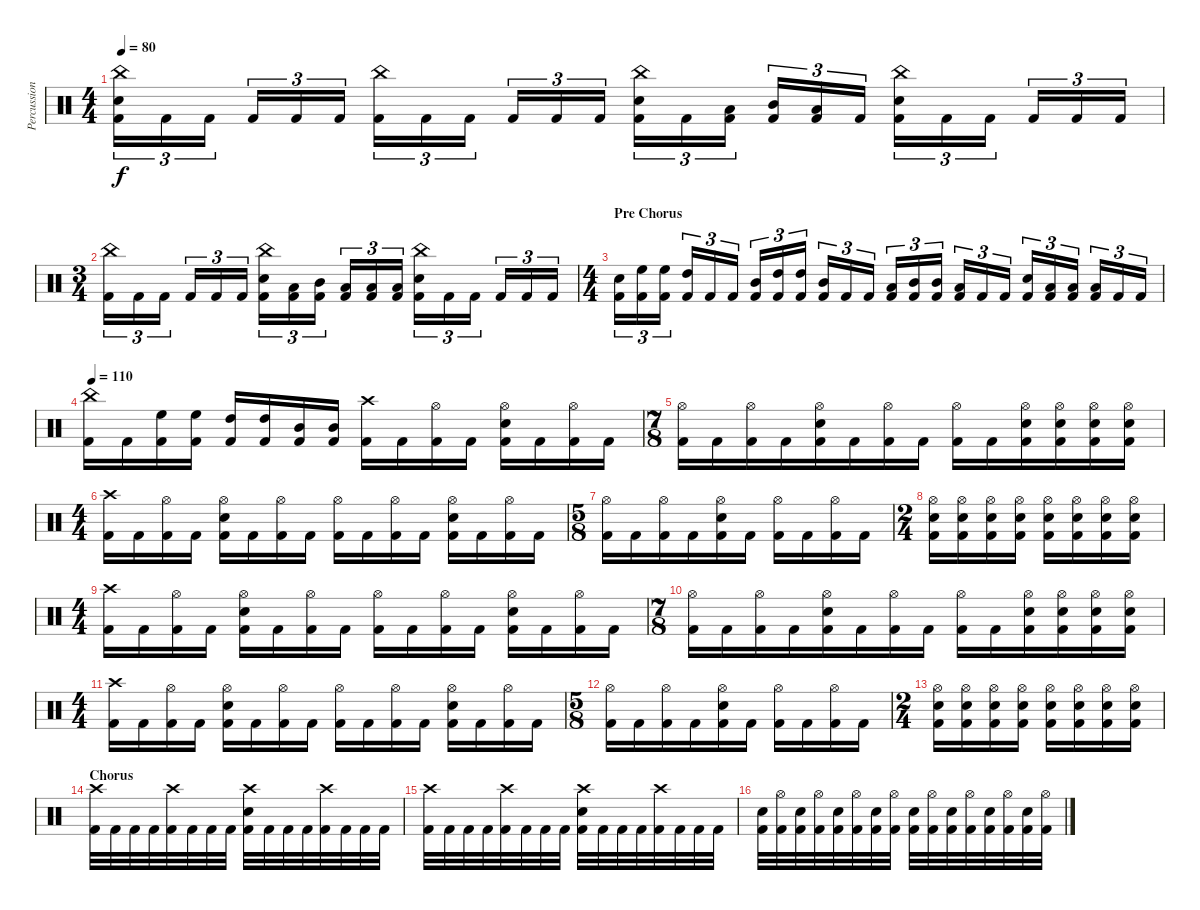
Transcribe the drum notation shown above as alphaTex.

\track ("Percussion" "Percussion") {instrument percussion}
\staff {score}
\articulation defaults
\ts (4 4)
\tempo 80
\clef neutral
\ks c
("China (hit)" "Electric Snare (hit)" "Kick (hit) 2").16{tu (3 2) dy f} "Kick (hit) 2".16{tu (3 2)} "Kick (hit) 2".16{tu (3 2)} "Kick (hit) 2".16{tu (3 2)} "Kick (hit) 2".16{tu (3 2)} "Kick (hit) 2".16{tu (3 2)} ("China (hit)" "Kick (hit) 2").16{tu (3 2)} "Kick (hit) 2".16{tu (3 2)} "Kick (hit) 2".16{tu (3 2)} "Kick (hit) 2".16{tu (3 2)} "Kick (hit) 2".16{tu (3 2)} "Kick (hit) 2".16{tu (3 2)} ("China (hit)" "Electric Snare (hit)" "Kick (hit) 2").16{tu (3 2)} "Kick (hit) 2".16{tu (3 2)} ("Low Tom (hit)" "Kick (hit) 2").16{tu (3 2)} ("Mid Tom (hit)" "Kick (hit) 2").16{tu (3 2)} ("Low Tom (hit)" "Kick (hit) 2").16{tu (3 2)} "Kick (hit) 2".16{tu (3 2)} ("China (hit)" "Electric Snare (hit)" "Kick (hit) 2").16{tu (3 2)} "Kick (hit) 2".16{tu (3 2)} "Kick (hit) 2".16{tu (3 2)} "Kick (hit) 2".16{tu (3 2)} "Kick (hit) 2".16{tu (3 2)} "Kick (hit) 2".16{tu (3 2)} |
\ts (3 4)
("China (hit)" "Kick (hit) 2").16{tu (3 2)} "Kick (hit) 2".16{tu (3 2)} "Kick (hit) 2".16{tu (3 2)} "Kick (hit) 2".16{tu (3 2)} "Kick (hit) 2".16{tu (3 2)} "Kick (hit) 2".16{tu (3 2)} ("China (hit)" "Electric Snare (hit)" "Kick (hit) 2").16{tu (3 2)} ("Low Tom (hit)" "Kick (hit) 2").16{tu (3 2)} ("Mid Tom (hit)" "Kick (hit) 2").16{tu (3 2)} ("Low Floor Tom (hit)" "Kick (hit) 2").16{tu (3 2)} ("Low Tom (hit)" "Kick (hit) 2").16{tu (3 2)} ("Low Floor Tom (hit)" "Kick (hit) 2").16{tu (3 2)} ("China (hit)" "Electric Snare (hit)" "Kick (hit) 2").16{tu (3 2)} "Kick (hit) 2".16{tu (3 2)} "Kick (hit) 2".16{tu (3 2)} "Kick (hit) 2".16{tu (3 2)} "Kick (hit) 2".16{tu (3 2)} "Kick (hit) 2".16{tu (3 2)} |
\ts (4 4)
\section ("" "Pre Chorus")
("Electric Snare (hit)" "Kick (hit) 2").16{tu (3 2)} ("High Floor Tom (hit)" "Kick (hit) 2").16{tu (3 2)} ("High Floor Tom (hit)" "Kick (hit) 2").16{tu (3 2)} ("High Tom (hit)" "Kick (hit) 2").16{tu (3 2)} "Kick (hit) 2".16{tu (3 2)} "Kick (hit) 2".16{tu (3 2)} ("Mid Tom (hit)" "Kick (hit) 2").16{tu (3 2)} ("High Tom (hit)" "Kick (hit) 2").16{tu (3 2)} ("High Tom (hit)" "Kick (hit) 2").16{tu (3 2)} ("Mid Tom (hit)" "Kick (hit) 2").16{tu (3 2)} "Kick (hit) 2".16{tu (3 2)} "Kick (hit) 2".16{tu (3 2)} ("Low Tom (hit)" "Kick (hit) 2").16{tu (3 2)} ("Mid Tom (hit)" "Kick (hit) 2").16{tu (3 2)} ("Mid Tom (hit)" "Kick (hit) 2").16{tu (3 2)} ("Low Tom (hit)" "Kick (hit) 2").16{tu (3 2)} "Kick (hit) 2".16{tu (3 2)} "Kick (hit) 2".16{tu (3 2)} ("Electric Snare (hit)" "Kick (hit) 2").16{tu (3 2)} ("Low Tom (hit)" "Kick (hit) 2").16{tu (3 2)} ("Low Tom (hit)" "Kick (hit) 2").16{tu (3 2)} ("Low Floor Tom (hit)" "Kick (hit) 2").16{tu (3 2)} "Kick (hit) 2".16{tu (3 2)} "Kick (hit) 2".16{tu (3 2)} |
\tempo 110
("China (hit)" "Kick (hit) 2").16 "Kick (hit) 2".16 ("High Floor Tom (hit)" "Kick (hit) 2").16 ("High Floor Tom (hit)" "Kick (hit) 2").16 ("High Tom (hit)" "Kick (hit) 2").16 ("High Tom (hit)" "Kick (hit) 2").16 ("Mid Tom (hit)" "Kick (hit) 2").16 ("Mid Tom (hit)" "Kick (hit) 2").16 ("Crash high (hit)" "Kick (hit) 2").16 "Kick (hit) 2".16 ("Hi-Hat (open)" "Kick (hit) 2").16 "Kick (hit) 2".16 ("Hi-Hat (open)" "Electric Snare (hit)" "Kick (hit) 2").16 "Kick (hit) 2".16 ("Hi-Hat (open)" "Kick (hit) 2").16 "Kick (hit) 2".16 |
\ts (7 8)
("Hi-Hat (open)" "Kick (hit) 2").16 "Kick (hit) 2".16 ("Hi-Hat (open)" "Kick (hit) 2").16 "Kick (hit) 2".16 ("Hi-Hat (open)" "Electric Snare (hit)" "Kick (hit) 2").16 "Kick (hit) 2".16 ("Hi-Hat (open)" "Kick (hit) 2").16 "Kick (hit) 2".16 ("Hi-Hat (open)" "Kick (hit) 2").16 "Kick (hit) 2".16 ("Hi-Hat (open)" "Electric Snare (hit)" "Kick (hit) 2").16 ("Hi-Hat (open)" "Electric Snare (hit)" "Kick (hit) 2").16 ("Hi-Hat (open)" "Electric Snare (hit)" "Kick (hit) 2").16 ("Hi-Hat (open)" "Electric Snare (hit)" "Kick (hit) 2").16 |
\ts (4 4)
("Crash high (hit)" "Kick (hit) 2").16 "Kick (hit) 2".16 ("Hi-Hat (open)" "Kick (hit) 2").16 "Kick (hit) 2".16 ("Hi-Hat (open)" "Electric Snare (hit)" "Kick (hit) 2").16 "Kick (hit) 2".16 ("Hi-Hat (open)" "Kick (hit) 2").16 "Kick (hit) 2".16 ("Hi-Hat (open)" "Kick (hit) 2").16 "Kick (hit) 2".16 ("Hi-Hat (open)" "Kick (hit) 2").16 "Kick (hit) 2".16 ("Hi-Hat (open)" "Electric Snare (hit)" "Kick (hit) 2").16 "Kick (hit) 2".16 ("Hi-Hat (open)" "Kick (hit) 2").16 "Kick (hit) 2".16 |
\ts (5 8)
("Hi-Hat (open)" "Kick (hit) 2").16 "Kick (hit) 2".16 ("Hi-Hat (open)" "Kick (hit) 2").16 "Kick (hit) 2".16 ("Hi-Hat (open)" "Electric Snare (hit)" "Kick (hit) 2").16 "Kick (hit) 2".16 ("Hi-Hat (open)" "Kick (hit) 2").16 "Kick (hit) 2".16 ("Hi-Hat (open)" "Kick (hit) 2").16 "Kick (hit) 2".16 |
\ts (2 4)
("Hi-Hat (open)" "Electric Snare (hit)" "Kick (hit) 2").16 ("Hi-Hat (open)" "Electric Snare (hit)" "Kick (hit) 2").16 ("Hi-Hat (open)" "Electric Snare (hit)" "Kick (hit) 2").16 ("Hi-Hat (open)" "Electric Snare (hit)" "Kick (hit) 2").16 ("Hi-Hat (open)" "Electric Snare (hit)" "Kick (hit) 2").16 ("Hi-Hat (open)" "Electric Snare (hit)" "Kick (hit) 2").16 ("Hi-Hat (open)" "Electric Snare (hit)" "Kick (hit) 2").16 ("Hi-Hat (open)" "Electric Snare (hit)" "Kick (hit) 2").16 |
\ts (4 4)
("Crash high (hit)" "Kick (hit) 2").16 "Kick (hit) 2".16 ("Hi-Hat (open)" "Kick (hit) 2").16 "Kick (hit) 2".16 ("Hi-Hat (open)" "Electric Snare (hit)" "Kick (hit) 2").16 "Kick (hit) 2".16 ("Hi-Hat (open)" "Kick (hit) 2").16 "Kick (hit) 2".16 ("Hi-Hat (open)" "Kick (hit) 2").16 "Kick (hit) 2".16 ("Hi-Hat (open)" "Kick (hit) 2").16 "Kick (hit) 2".16 ("Hi-Hat (open)" "Electric Snare (hit)" "Kick (hit) 2").16 "Kick (hit) 2".16 ("Hi-Hat (open)" "Kick (hit) 2").16 "Kick (hit) 2".16 |
\ts (7 8)
("Hi-Hat (open)" "Kick (hit) 2").16 "Kick (hit) 2".16 ("Hi-Hat (open)" "Kick (hit) 2").16 "Kick (hit) 2".16 ("Hi-Hat (open)" "Electric Snare (hit)" "Kick (hit) 2").16 "Kick (hit) 2".16 ("Hi-Hat (open)" "Kick (hit) 2").16 "Kick (hit) 2".16 ("Hi-Hat (open)" "Kick (hit) 2").16 "Kick (hit) 2".16 ("Hi-Hat (open)" "Electric Snare (hit)" "Kick (hit) 2").16 ("Hi-Hat (open)" "Electric Snare (hit)" "Kick (hit) 2").16 ("Hi-Hat (open)" "Electric Snare (hit)" "Kick (hit) 2").16 ("Hi-Hat (open)" "Electric Snare (hit)" "Kick (hit) 2").16 |
\ts (4 4)
("Crash high (hit)" "Kick (hit) 2").16 "Kick (hit) 2".16 ("Hi-Hat (open)" "Kick (hit) 2").16 "Kick (hit) 2".16 ("Hi-Hat (open)" "Electric Snare (hit)" "Kick (hit) 2").16 "Kick (hit) 2".16 ("Hi-Hat (open)" "Kick (hit) 2").16 "Kick (hit) 2".16 ("Hi-Hat (open)" "Kick (hit) 2").16 "Kick (hit) 2".16 ("Hi-Hat (open)" "Kick (hit) 2").16 "Kick (hit) 2".16 ("Hi-Hat (open)" "Electric Snare (hit)" "Kick (hit) 2").16 "Kick (hit) 2".16 ("Hi-Hat (open)" "Kick (hit) 2").16 "Kick (hit) 2".16 |
\ts (5 8)
("Hi-Hat (open)" "Kick (hit) 2").16 "Kick (hit) 2".16 ("Hi-Hat (open)" "Kick (hit) 2").16 "Kick (hit) 2".16 ("Hi-Hat (open)" "Electric Snare (hit)" "Kick (hit) 2").16 "Kick (hit) 2".16 ("Hi-Hat (open)" "Kick (hit) 2").16 "Kick (hit) 2".16 ("Hi-Hat (open)" "Kick (hit) 2").16 "Kick (hit) 2".16 |
\ts (2 4)
("Hi-Hat (open)" "Electric Snare (hit)" "Kick (hit) 2").16 ("Hi-Hat (open)" "Electric Snare (hit)" "Kick (hit) 2").16 ("Hi-Hat (open)" "Electric Snare (hit)" "Kick (hit) 2").16 ("Hi-Hat (open)" "Electric Snare (hit)" "Kick (hit) 2").16 ("Hi-Hat (open)" "Electric Snare (hit)" "Kick (hit) 2").16 ("Hi-Hat (open)" "Electric Snare (hit)" "Kick (hit) 2").16 ("Hi-Hat (open)" "Electric Snare (hit)" "Kick (hit) 2").16 ("Hi-Hat (open)" "Electric Snare (hit)" "Kick (hit) 2").16 |
\section ("" "Chorus")
("Crash high (hit)" "Kick (hit) 2").32 "Kick (hit) 2".32 "Kick (hit) 2".32 "Kick (hit) 2".32 ("Crash high (hit)" "Kick (hit) 2").32 "Kick (hit) 2".32 "Kick (hit) 2".32 "Kick (hit) 2".32 ("Crash high (hit)" "Electric Snare (hit)" "Kick (hit) 2").32 "Kick (hit) 2".32 "Kick (hit) 2".32 "Kick (hit) 2".32 ("Crash high (hit)" "Kick (hit) 2").32 "Kick (hit) 2".32 "Kick (hit) 2".32 "Kick (hit) 2".32 |
("Crash high (hit)" "Kick (hit) 2").32 "Kick (hit) 2".32 "Kick (hit) 2".32 "Kick (hit) 2".32 ("Crash high (hit)" "Kick (hit) 2").32 "Kick (hit) 2".32 "Kick (hit) 2".32 "Kick (hit) 2".32 ("Crash high (hit)" "Electric Snare (hit)" "Kick (hit) 2").32 "Kick (hit) 2".32 "Kick (hit) 2".32 "Kick (hit) 2".32 ("Crash high (hit)" "Kick (hit) 2").32 "Kick (hit) 2".32 "Kick (hit) 2".32 "Kick (hit) 2".32 |
("Electric Snare (hit)" "Kick (hit) 2").32 ("Hi-Hat (open)" "Kick (hit) 2").32 ("Electric Snare (hit)" "Kick (hit) 2").32 ("Hi-Hat (open)" "Kick (hit) 2").32 ("Electric Snare (hit)" "Kick (hit) 2").32 ("Hi-Hat (open)" "Kick (hit) 2").32 ("Electric Snare (hit)" "Kick (hit) 2").32 ("Hi-Hat (open)" "Kick (hit) 2").32 ("Electric Snare (hit)" "Kick (hit) 2").32 ("Hi-Hat (open)" "Kick (hit) 2").32 ("Electric Snare (hit)" "Kick (hit) 2").32 ("Hi-Hat (open)" "Kick (hit) 2").32 ("Electric Snare (hit)" "Kick (hit) 2").32 ("Hi-Hat (open)" "Kick (hit) 2").32 ("Electric Snare (hit)" "Kick (hit) 2").32 ("Hi-Hat (open)" "Kick (hit) 2").32
